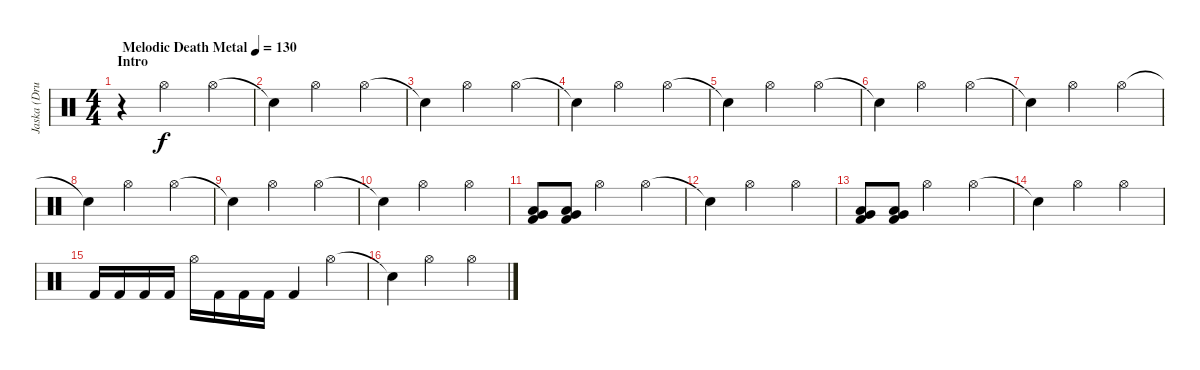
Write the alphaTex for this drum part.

\track ("Jaska (Drums)" "Jaska (Dru") {instrument percussion}
\staff {score}
\articulation defaults
\ts (4 4)
\section ("" "Intro")
\tempo (130 "Melodic Death Metal")
\clef neutral
\ks c
r.4{dy f} "Hi-Hat (open)".2{volume 10 balance 8} "Hi-Hat (open)".4{volume 13} |
"Snare (hit)"{t}.4 "Hi-Hat (open)".2 "Hi-Hat (open)".4 |
"Snare (hit)"{t}.4 "Hi-Hat (open)".2 "Hi-Hat (open)".4 |
"Snare (hit)"{t}.4 "Hi-Hat (open)".2 "Hi-Hat (open)".4 |
"Snare (hit)"{t}.4 "Hi-Hat (open)".2 "Hi-Hat (open)".4 |
"Snare (hit)"{t}.4 "Hi-Hat (open)".2{volume 16} "Hi-Hat (open)".4 |
"Snare (hit)"{t}.4 "Hi-Hat (open)".2 "Hi-Hat (open)".4 |
"Snare (hit)"{t}.4 "Hi-Hat (open)".2 "Hi-Hat (open)".4 |
"Snare (hit)"{t}.4 "Hi-Hat (open)".2 "Hi-Hat (open)".4 |
"Snare (hit)"{t}.4 "Hi-Hat (open)".2 "Hi-Hat (open)".4 |
("Very Low Tom (hit)" "Low Floor Tom (hit)" "Kick (hit) 2").8 ("Very Low Tom (hit)" "Low Floor Tom (hit)" "Kick (hit) 2").8 "Hi-Hat (open)".2 "Hi-Hat (open)".4 |
"Snare (hit)"{t}.4 "Hi-Hat (open)".2 "Hi-Hat (open)".4 |
("Very Low Tom (hit)" "Low Floor Tom (hit)" "Kick (hit) 2").8 ("Very Low Tom (hit)" "Low Floor Tom (hit)" "Kick (hit) 2").8 "Hi-Hat (open)".2 "Hi-Hat (open)".4 |
"Snare (hit)"{t}.4 "Hi-Hat (open)".2 "Hi-Hat (open)".4 |
"Kick (hit) 2".16 "Kick (hit) 2".16 "Kick (hit) 2".16 "Kick (hit) 2".16 "Hi-Hat (open)".16 "Kick (hit) 2".16 "Kick (hit) 2".16 "Kick (hit) 2".16 "Kick (hit) 2".4 "Hi-Hat (open)".4 |
"Snare (hit)"{t}.4 "Hi-Hat (open)".2 "Hi-Hat (open)".4
